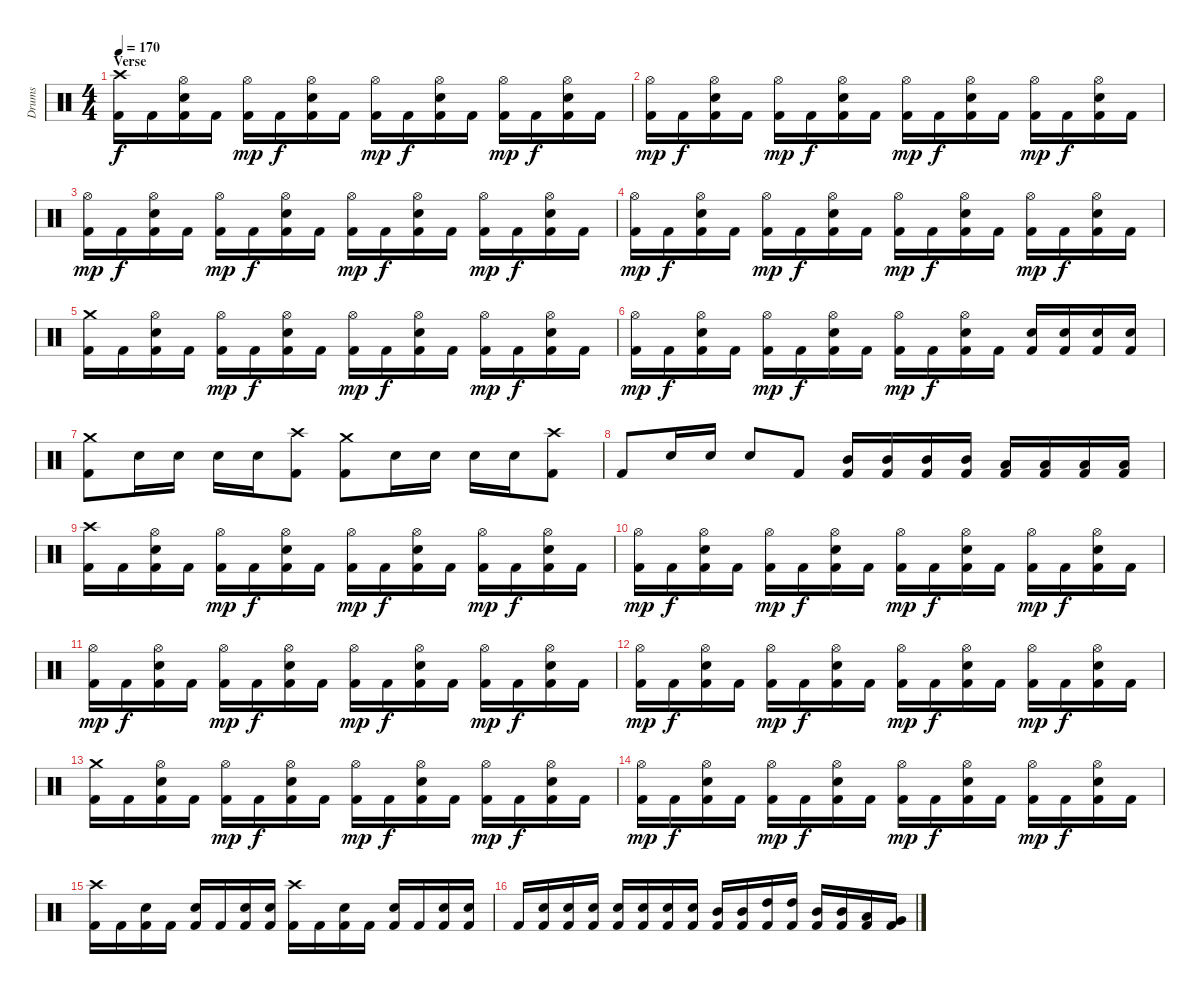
\track ("Drums" "Drums") {instrument percussion}
\staff {score}
\articulation defaults
\ts (4 4)
\section ("" "Verse")
\tempo 170
\clef neutral
\ks c
("Kick (hit) 2" "Crash high (hit)").16{dy f} "Kick (hit) 2".16 ("Kick (hit) 2" "Electric Snare (hit)" "Hi-Hat (open)").16 "Kick (hit) 2".16 ("Kick (hit) 2" "Hi-Hat (open)").16{dy mp} "Kick (hit) 2".16{dy f} ("Kick (hit) 2" "Electric Snare (hit)" "Hi-Hat (open)").16 "Kick (hit) 2".16 ("Kick (hit) 2" "Hi-Hat (open)").16{dy mp} "Kick (hit) 2".16{dy f} ("Kick (hit) 2" "Electric Snare (hit)" "Hi-Hat (open)").16 "Kick (hit) 2".16 ("Kick (hit) 2" "Hi-Hat (open)").16{dy mp} "Kick (hit) 2".16{dy f} ("Kick (hit) 2" "Electric Snare (hit)" "Hi-Hat (open)").16 "Kick (hit) 2".16 |
("Kick (hit) 2" "Hi-Hat (open)").16{dy mp} "Kick (hit) 2".16{dy f} ("Kick (hit) 2" "Electric Snare (hit)" "Hi-Hat (open)").16 "Kick (hit) 2".16 ("Kick (hit) 2" "Hi-Hat (open)").16{dy mp} "Kick (hit) 2".16{dy f} ("Kick (hit) 2" "Electric Snare (hit)" "Hi-Hat (open)").16 "Kick (hit) 2".16 ("Kick (hit) 2" "Hi-Hat (open)").16{dy mp} "Kick (hit) 2".16{dy f} ("Kick (hit) 2" "Electric Snare (hit)" "Hi-Hat (open)").16 "Kick (hit) 2".16 ("Kick (hit) 2" "Hi-Hat (open)").16{dy mp} "Kick (hit) 2".16{dy f} ("Kick (hit) 2" "Electric Snare (hit)" "Hi-Hat (open)").16 "Kick (hit) 2".16 |
("Kick (hit) 2" "Hi-Hat (open)").16{dy mp} "Kick (hit) 2".16{dy f} ("Kick (hit) 2" "Electric Snare (hit)" "Hi-Hat (open)").16 "Kick (hit) 2".16 ("Kick (hit) 2" "Hi-Hat (open)").16{dy mp} "Kick (hit) 2".16{dy f} ("Kick (hit) 2" "Electric Snare (hit)" "Hi-Hat (open)").16 "Kick (hit) 2".16 ("Kick (hit) 2" "Hi-Hat (open)").16{dy mp} "Kick (hit) 2".16{dy f} ("Kick (hit) 2" "Electric Snare (hit)" "Hi-Hat (open)").16 "Kick (hit) 2".16 ("Kick (hit) 2" "Hi-Hat (open)").16{dy mp} "Kick (hit) 2".16{dy f} ("Kick (hit) 2" "Electric Snare (hit)" "Hi-Hat (open)").16 "Kick (hit) 2".16 |
("Kick (hit) 2" "Hi-Hat (open)").16{dy mp} "Kick (hit) 2".16{dy f} ("Kick (hit) 2" "Electric Snare (hit)" "Hi-Hat (open)").16 "Kick (hit) 2".16 ("Kick (hit) 2" "Hi-Hat (open)").16{dy mp} "Kick (hit) 2".16{dy f} ("Kick (hit) 2" "Electric Snare (hit)" "Hi-Hat (open)").16 "Kick (hit) 2".16 ("Kick (hit) 2" "Hi-Hat (open)").16{dy mp} "Kick (hit) 2".16{dy f} ("Kick (hit) 2" "Electric Snare (hit)" "Hi-Hat (open)").16 "Kick (hit) 2".16 ("Kick (hit) 2" "Hi-Hat (open)").16{dy mp} "Kick (hit) 2".16{dy f} ("Kick (hit) 2" "Electric Snare (hit)" "Hi-Hat (open)").16 "Kick (hit) 2".16 |
("Kick (hit) 2" "Crash medium (hit)").16 "Kick (hit) 2".16 ("Kick (hit) 2" "Electric Snare (hit)" "Hi-Hat (open)").16 "Kick (hit) 2".16 ("Kick (hit) 2" "Hi-Hat (open)").16{dy mp} "Kick (hit) 2".16{dy f} ("Kick (hit) 2" "Electric Snare (hit)" "Hi-Hat (open)").16 "Kick (hit) 2".16 ("Kick (hit) 2" "Hi-Hat (open)").16{dy mp} "Kick (hit) 2".16{dy f} ("Kick (hit) 2" "Electric Snare (hit)" "Hi-Hat (open)").16 "Kick (hit) 2".16 ("Kick (hit) 2" "Hi-Hat (open)").16{dy mp} "Kick (hit) 2".16{dy f} ("Kick (hit) 2" "Electric Snare (hit)" "Hi-Hat (open)").16 "Kick (hit) 2".16 |
("Kick (hit) 2" "Hi-Hat (open)").16{dy mp} "Kick (hit) 2".16{dy f} ("Kick (hit) 2" "Electric Snare (hit)" "Hi-Hat (open)").16 "Kick (hit) 2".16 ("Kick (hit) 2" "Hi-Hat (open)").16{dy mp} "Kick (hit) 2".16{dy f} ("Kick (hit) 2" "Electric Snare (hit)" "Hi-Hat (open)").16 "Kick (hit) 2".16 ("Kick (hit) 2" "Hi-Hat (open)").16{dy mp} "Kick (hit) 2".16{dy f} ("Kick (hit) 2" "Electric Snare (hit)" "Hi-Hat (open)").16 "Kick (hit) 2".16 ("Kick (hit) 2" "Electric Snare (hit)").16 ("Kick (hit) 2" "Electric Snare (hit)").16 ("Kick (hit) 2" "Electric Snare (hit)").16 ("Kick (hit) 2" "Electric Snare (hit)").16 |
("Kick (hit) 2" "Crash medium (hit)").8 "Electric Snare (hit)".16 "Electric Snare (hit)".16 "Electric Snare (hit)".16 "Electric Snare (hit)".16 ("Kick (hit) 2" "Crash high (hit)").8 ("Kick (hit) 2" "Crash medium (hit)").8 "Electric Snare (hit)".16 "Electric Snare (hit)".16 "Electric Snare (hit)".16 "Electric Snare (hit)".16 ("Kick (hit) 2" "Crash high (hit)").8 |
"Kick (hit) 2".8 "Electric Snare (hit)".16 "Electric Snare (hit)".16 "Electric Snare (hit)".8 "Kick (hit) 2".8 ("Kick (hit) 2" "Mid Tom (hit)").16 ("Kick (hit) 2" "Mid Tom (hit)").16 ("Kick (hit) 2" "Mid Tom (hit)").16 ("Kick (hit) 2" "Mid Tom (hit)").16 ("Kick (hit) 2" "Low Tom (hit)").16 ("Kick (hit) 2" "Low Tom (hit)").16 ("Kick (hit) 2" "Low Tom (hit)").16 ("Kick (hit) 2" "Low Tom (hit)").16 |
("Kick (hit) 2" "Crash high (hit)").16 "Kick (hit) 2".16 ("Kick (hit) 2" "Electric Snare (hit)" "Hi-Hat (open)").16 "Kick (hit) 2".16 ("Kick (hit) 2" "Hi-Hat (open)").16{dy mp} "Kick (hit) 2".16{dy f} ("Kick (hit) 2" "Electric Snare (hit)" "Hi-Hat (open)").16 "Kick (hit) 2".16 ("Kick (hit) 2" "Hi-Hat (open)").16{dy mp} "Kick (hit) 2".16{dy f} ("Kick (hit) 2" "Electric Snare (hit)" "Hi-Hat (open)").16 "Kick (hit) 2".16 ("Kick (hit) 2" "Hi-Hat (open)").16{dy mp} "Kick (hit) 2".16{dy f} ("Kick (hit) 2" "Electric Snare (hit)" "Hi-Hat (open)").16 "Kick (hit) 2".16 |
("Kick (hit) 2" "Hi-Hat (open)").16{dy mp} "Kick (hit) 2".16{dy f} ("Kick (hit) 2" "Electric Snare (hit)" "Hi-Hat (open)").16 "Kick (hit) 2".16 ("Kick (hit) 2" "Hi-Hat (open)").16{dy mp} "Kick (hit) 2".16{dy f} ("Kick (hit) 2" "Electric Snare (hit)" "Hi-Hat (open)").16 "Kick (hit) 2".16 ("Kick (hit) 2" "Hi-Hat (open)").16{dy mp} "Kick (hit) 2".16{dy f} ("Kick (hit) 2" "Electric Snare (hit)" "Hi-Hat (open)").16 "Kick (hit) 2".16 ("Kick (hit) 2" "Hi-Hat (open)").16{dy mp} "Kick (hit) 2".16{dy f} ("Kick (hit) 2" "Electric Snare (hit)" "Hi-Hat (open)").16 "Kick (hit) 2".16 |
("Kick (hit) 2" "Hi-Hat (open)").16{dy mp} "Kick (hit) 2".16{dy f} ("Kick (hit) 2" "Electric Snare (hit)" "Hi-Hat (open)").16 "Kick (hit) 2".16 ("Kick (hit) 2" "Hi-Hat (open)").16{dy mp} "Kick (hit) 2".16{dy f} ("Kick (hit) 2" "Electric Snare (hit)" "Hi-Hat (open)").16 "Kick (hit) 2".16 ("Kick (hit) 2" "Hi-Hat (open)").16{dy mp} "Kick (hit) 2".16{dy f} ("Kick (hit) 2" "Electric Snare (hit)" "Hi-Hat (open)").16 "Kick (hit) 2".16 ("Kick (hit) 2" "Hi-Hat (open)").16{dy mp} "Kick (hit) 2".16{dy f} ("Kick (hit) 2" "Electric Snare (hit)" "Hi-Hat (open)").16 "Kick (hit) 2".16 |
("Kick (hit) 2" "Hi-Hat (open)").16{dy mp} "Kick (hit) 2".16{dy f} ("Kick (hit) 2" "Electric Snare (hit)" "Hi-Hat (open)").16 "Kick (hit) 2".16 ("Kick (hit) 2" "Hi-Hat (open)").16{dy mp} "Kick (hit) 2".16{dy f} ("Kick (hit) 2" "Electric Snare (hit)" "Hi-Hat (open)").16 "Kick (hit) 2".16 ("Kick (hit) 2" "Hi-Hat (open)").16{dy mp} "Kick (hit) 2".16{dy f} ("Kick (hit) 2" "Electric Snare (hit)" "Hi-Hat (open)").16 "Kick (hit) 2".16 ("Kick (hit) 2" "Hi-Hat (open)").16{dy mp} "Kick (hit) 2".16{dy f} ("Kick (hit) 2" "Electric Snare (hit)" "Hi-Hat (open)").16 "Kick (hit) 2".16 |
("Kick (hit) 2" "Crash medium (hit)").16 "Kick (hit) 2".16 ("Kick (hit) 2" "Electric Snare (hit)" "Hi-Hat (open)").16 "Kick (hit) 2".16 ("Kick (hit) 2" "Hi-Hat (open)").16{dy mp} "Kick (hit) 2".16{dy f} ("Kick (hit) 2" "Electric Snare (hit)" "Hi-Hat (open)").16 "Kick (hit) 2".16 ("Kick (hit) 2" "Hi-Hat (open)").16{dy mp} "Kick (hit) 2".16{dy f} ("Kick (hit) 2" "Electric Snare (hit)" "Hi-Hat (open)").16 "Kick (hit) 2".16 ("Kick (hit) 2" "Hi-Hat (open)").16{dy mp} "Kick (hit) 2".16{dy f} ("Kick (hit) 2" "Electric Snare (hit)" "Hi-Hat (open)").16 "Kick (hit) 2".16 |
("Kick (hit) 2" "Hi-Hat (open)").16{dy mp} "Kick (hit) 2".16{dy f} ("Kick (hit) 2" "Electric Snare (hit)" "Hi-Hat (open)").16 "Kick (hit) 2".16 ("Kick (hit) 2" "Hi-Hat (open)").16{dy mp} "Kick (hit) 2".16{dy f} ("Kick (hit) 2" "Electric Snare (hit)" "Hi-Hat (open)").16 "Kick (hit) 2".16 ("Kick (hit) 2" "Hi-Hat (open)").16{dy mp} "Kick (hit) 2".16{dy f} ("Kick (hit) 2" "Electric Snare (hit)" "Hi-Hat (open)").16 "Kick (hit) 2".16 ("Kick (hit) 2" "Hi-Hat (open)").16{dy mp} "Kick (hit) 2".16{dy f} ("Kick (hit) 2" "Electric Snare (hit)" "Hi-Hat (open)").16 "Kick (hit) 2".16 |
("Kick (hit) 2" "Crash high (hit)").16 "Kick (hit) 2".16 ("Kick (hit) 2" "Electric Snare (hit)").16 "Kick (hit) 2".16 ("Kick (hit) 2" "Electric Snare (hit)").16 "Kick (hit) 2".16 ("Kick (hit) 2" "Electric Snare (hit)").16 ("Kick (hit) 2" "Electric Snare (hit)").16 ("Kick (hit) 2" "Crash high (hit)").16 "Kick (hit) 2".16 ("Kick (hit) 2" "Electric Snare (hit)").16 "Kick (hit) 2".16 ("Kick (hit) 2" "Electric Snare (hit)").16 "Kick (hit) 2".16 ("Kick (hit) 2" "Electric Snare (hit)").16 ("Kick (hit) 2" "Electric Snare (hit)").16 |
"Kick (hit) 2".16 ("Kick (hit) 2" "Electric Snare (hit)").16 ("Kick (hit) 2" "Electric Snare (hit)").16 ("Kick (hit) 2" "Electric Snare (hit)").16 ("Kick (hit) 2" "Electric Snare (hit)").16 ("Kick (hit) 2" "Electric Snare (hit)").16 ("Kick (hit) 2" "Electric Snare (hit)").16 ("Kick (hit) 2" "Electric Snare (hit)").16 ("Kick (hit) 2" "Mid Tom (hit)").16 ("Kick (hit) 2" "Mid Tom (hit)").16 ("Kick (hit) 2" "High Tom (hit)").16 ("Kick (hit) 2" "High Tom (hit)").16 ("Kick (hit) 2" "Mid Tom (hit)").16 ("Kick (hit) 2" "Mid Tom (hit)").16 ("Kick (hit) 2" "Low Tom (hit)").16 ("Kick (hit) 2" "Very Low Tom (hit)").16
